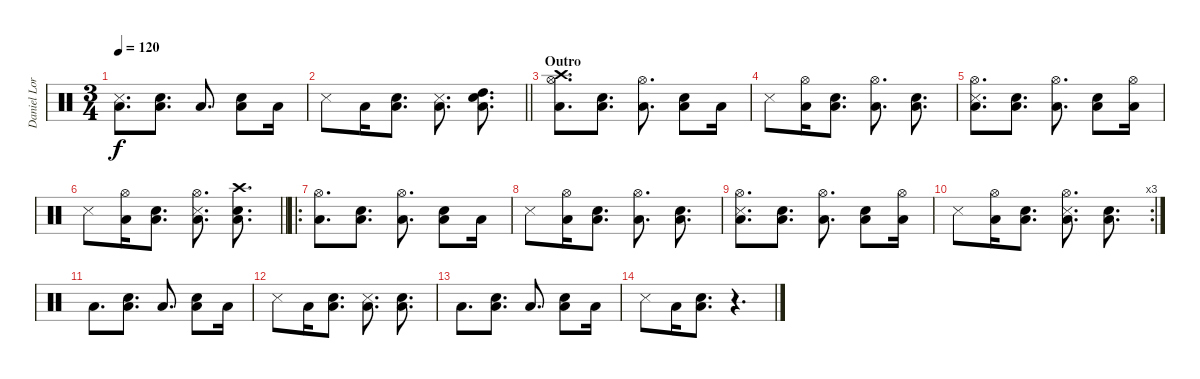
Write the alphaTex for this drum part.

\track ("Daniel Lorca " "Daniel Lor") {instrument percussion}
\staff {score}
\articulation defaults
\ts (3 4)
\tempo 120
\clef neutral
\ks c
("Low Floor Tom (hit)" "Metronome (hit)").8{d dy f} ("Low Floor Tom (hit)" "Electric Snare (hit)").8{d} "Low Floor Tom (hit)".8{d} ("Low Floor Tom (hit)" "Electric Snare (hit)").8 "Low Floor Tom (hit)".16 |
\barLineRight lightlight "Snare (side stick) 3".8 "Low Floor Tom (hit)".16
("Low Floor Tom (hit)" "Electric Snare (hit)").8{d} ("Low Floor Tom (hit)" "Metronome (hit)").8{d} ("Low Floor Tom (hit)" "Electric Snare (hit)" "High Tom (hit)").8{d} |
\section ("" "Outro")
("Low Floor Tom (hit)" "Hi-Hat (open)" "Crash high (hit)").8{d} ("Low Floor Tom (hit)" "Electric Snare (hit)").8{d} ("Low Floor Tom (hit)" "Hi-Hat (open)").8{d} ("Low Floor Tom (hit)" "Electric Snare (hit)").8 "Low Floor Tom (hit)".16 |
"Snare (side stick) 3".8 ("Low Floor Tom (hit)" "Hi-Hat (open)").16 ("Low Floor Tom (hit)" "Electric Snare (hit)").8{d} ("Low Floor Tom (hit)" "Hi-Hat (open)").8{d} ("Low Floor Tom (hit)" "Electric Snare (hit)").8{d} |
("Low Floor Tom (hit)" "Hi-Hat (open)" "Metronome (hit)").8{d} ("Low Floor Tom (hit)" "Electric Snare (hit)").8{d} ("Low Floor Tom (hit)" "Hi-Hat (open)").8{d} ("Low Floor Tom (hit)" "Electric Snare (hit)").8 ("Low Floor Tom (hit)" "Hi-Hat (open)").16 |
\barLineRight lightlight "Snare (side stick) 3".8
("Low Floor Tom (hit)" "Hi-Hat (open)").16 ("Low Floor Tom (hit)" "Electric Snare (hit)").8{d} ("Low Floor Tom (hit)" "Hi-Hat (open)" "Metronome (hit)").8{d} ("Low Floor Tom (hit)" "Electric Snare (hit)" "Crash high (hit)").8{d} |
\ro
("Low Floor Tom (hit)" "Hi-Hat (open)").8{d} ("Low Floor Tom (hit)" "Electric Snare (hit)").8{d} ("Low Floor Tom (hit)" "Hi-Hat (open)").8{d} ("Low Floor Tom (hit)" "Electric Snare (hit)").8 "Low Floor Tom (hit)".16 |
"Snare (side stick) 3".8 ("Low Floor Tom (hit)" "Hi-Hat (open)").16 ("Low Floor Tom (hit)" "Electric Snare (hit)").8{d} ("Low Floor Tom (hit)" "Hi-Hat (open)").8{d} ("Low Floor Tom (hit)" "Electric Snare (hit)").8{d} |
("Low Floor Tom (hit)" "Hi-Hat (open)" "Metronome (hit)").8{d} ("Low Floor Tom (hit)" "Electric Snare (hit)").8{d} ("Low Floor Tom (hit)" "Hi-Hat (open)").8{d} ("Low Floor Tom (hit)" "Electric Snare (hit)").8 ("Low Floor Tom (hit)" "Hi-Hat (open)").16 |
\rc 3 "Snare (side stick) 3".8
("Low Floor Tom (hit)" "Hi-Hat (open)").16 ("Low Floor Tom (hit)" "Electric Snare (hit)").8{d} ("Low Floor Tom (hit)" "Hi-Hat (open)" "Metronome (hit)").8{d} ("Low Floor Tom (hit)" "Electric Snare (hit)").8{d} |
"Low Floor Tom (hit)".8{d} ("Low Floor Tom (hit)" "Electric Snare (hit)").8{d} "Low Floor Tom (hit)".8{d} ("Low Floor Tom (hit)" "Electric Snare (hit)").8 "Low Floor Tom (hit)".16 |
"Snare (side stick) 3".8 "Low Floor Tom (hit)".16 ("Low Floor Tom (hit)" "Electric Snare (hit)").8{d} ("Low Floor Tom (hit)" "Metronome (hit)").8{d} ("Low Floor Tom (hit)" "Electric Snare (hit)").8{d} |
"Low Floor Tom (hit)".8{d} ("Low Floor Tom (hit)" "Electric Snare (hit)").8{d} "Low Floor Tom (hit)".8{d} ("Low Floor Tom (hit)" "Electric Snare (hit)").8 "Low Floor Tom (hit)".16 |
"Snare (side stick) 3".8 "Low Floor Tom (hit)".16 ("Low Floor Tom (hit)" "Electric Snare (hit)").8{d} r.4{d}
